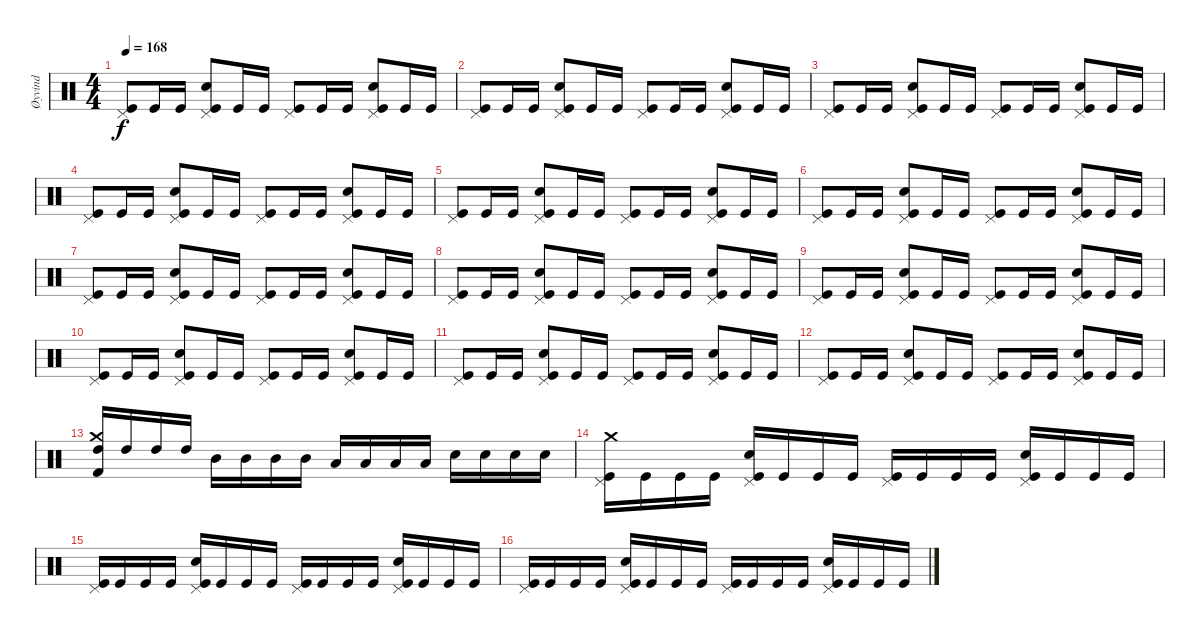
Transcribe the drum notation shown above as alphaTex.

\track ("Øyvind" "Øyvind") {instrument percussion}
\staff {score}
\articulation defaults
\ts (4 4)
\tempo 168
\clef neutral
\ks c
("Pedal Hi-Hat (hit)" "Kick (hit)").8{dy f} "Kick (hit)".16 "Kick (hit)".16 ("Snare (hit) 2" "Pedal Hi-Hat (hit)" "Kick (hit)").8 "Kick (hit)".16 "Kick (hit)".16 ("Pedal Hi-Hat (hit)" "Kick (hit)").8 "Kick (hit)".16 "Kick (hit)".16 ("Snare (hit) 2" "Pedal Hi-Hat (hit)" "Kick (hit)").8 "Kick (hit)".16 "Kick (hit)".16 |
("Pedal Hi-Hat (hit)" "Kick (hit)").8 "Kick (hit)".16 "Kick (hit)".16 ("Snare (hit) 2" "Pedal Hi-Hat (hit)" "Kick (hit)").8 "Kick (hit)".16 "Kick (hit)".16 ("Pedal Hi-Hat (hit)" "Kick (hit)").8 "Kick (hit)".16 "Kick (hit)".16 ("Snare (hit) 2" "Pedal Hi-Hat (hit)" "Kick (hit)").8 "Kick (hit)".16 "Kick (hit)".16 |
("Pedal Hi-Hat (hit)" "Kick (hit)").8 "Kick (hit)".16 "Kick (hit)".16 ("Snare (hit) 2" "Pedal Hi-Hat (hit)" "Kick (hit)").8 "Kick (hit)".16 "Kick (hit)".16 ("Pedal Hi-Hat (hit)" "Kick (hit)").8 "Kick (hit)".16 "Kick (hit)".16 ("Snare (hit) 2" "Pedal Hi-Hat (hit)" "Kick (hit)").8 "Kick (hit)".16 "Kick (hit)".16 |
("Pedal Hi-Hat (hit)" "Kick (hit)").8 "Kick (hit)".16 "Kick (hit)".16 ("Snare (hit) 2" "Pedal Hi-Hat (hit)" "Kick (hit)").8 "Kick (hit)".16 "Kick (hit)".16 ("Pedal Hi-Hat (hit)" "Kick (hit)").8 "Kick (hit)".16 "Kick (hit)".16 ("Snare (hit) 2" "Pedal Hi-Hat (hit)" "Kick (hit)").8 "Kick (hit)".16 "Kick (hit)".16 |
("Pedal Hi-Hat (hit)" "Kick (hit)").8 "Kick (hit)".16 "Kick (hit)".16 ("Snare (hit) 2" "Pedal Hi-Hat (hit)" "Kick (hit)").8 "Kick (hit)".16 "Kick (hit)".16 ("Pedal Hi-Hat (hit)" "Kick (hit)").8 "Kick (hit)".16 "Kick (hit)".16 ("Snare (hit) 2" "Pedal Hi-Hat (hit)" "Kick (hit)").8 "Kick (hit)".16 "Kick (hit)".16 |
("Pedal Hi-Hat (hit)" "Kick (hit)").8 "Kick (hit)".16 "Kick (hit)".16 ("Snare (hit) 2" "Pedal Hi-Hat (hit)" "Kick (hit)").8 "Kick (hit)".16 "Kick (hit)".16 ("Pedal Hi-Hat (hit)" "Kick (hit)").8 "Kick (hit)".16 "Kick (hit)".16 ("Snare (hit) 2" "Pedal Hi-Hat (hit)" "Kick (hit)").8 "Kick (hit)".16 "Kick (hit)".16 |
("Pedal Hi-Hat (hit)" "Kick (hit)").8 "Kick (hit)".16 "Kick (hit)".16 ("Snare (hit) 2" "Pedal Hi-Hat (hit)" "Kick (hit)").8 "Kick (hit)".16 "Kick (hit)".16 ("Pedal Hi-Hat (hit)" "Kick (hit)").8 "Kick (hit)".16 "Kick (hit)".16 ("Snare (hit) 2" "Pedal Hi-Hat (hit)" "Kick (hit)").8 "Kick (hit)".16 "Kick (hit)".16 |
("Pedal Hi-Hat (hit)" "Kick (hit)").8 "Kick (hit)".16 "Kick (hit)".16 ("Snare (hit) 2" "Pedal Hi-Hat (hit)" "Kick (hit)").8 "Kick (hit)".16 "Kick (hit)".16 ("Pedal Hi-Hat (hit)" "Kick (hit)").8 "Kick (hit)".16 "Kick (hit)".16 ("Snare (hit) 2" "Pedal Hi-Hat (hit)" "Kick (hit)").8 "Kick (hit)".16 "Kick (hit)".16 |
("Pedal Hi-Hat (hit)" "Kick (hit)").8 "Kick (hit)".16 "Kick (hit)".16 ("Snare (hit) 2" "Pedal Hi-Hat (hit)" "Kick (hit)").8 "Kick (hit)".16 "Kick (hit)".16 ("Pedal Hi-Hat (hit)" "Kick (hit)").8 "Kick (hit)".16 "Kick (hit)".16 ("Snare (hit) 2" "Pedal Hi-Hat (hit)" "Kick (hit)").8 "Kick (hit)".16 "Kick (hit)".16 |
("Pedal Hi-Hat (hit)" "Kick (hit)").8 "Kick (hit)".16 "Kick (hit)".16 ("Snare (hit) 2" "Pedal Hi-Hat (hit)" "Kick (hit)").8 "Kick (hit)".16 "Kick (hit)".16 ("Pedal Hi-Hat (hit)" "Kick (hit)").8 "Kick (hit)".16 "Kick (hit)".16 ("Snare (hit) 2" "Pedal Hi-Hat (hit)" "Kick (hit)").8 "Kick (hit)".16 "Kick (hit)".16 |
("Pedal Hi-Hat (hit)" "Kick (hit)").8 "Kick (hit)".16 "Kick (hit)".16 ("Snare (hit) 2" "Pedal Hi-Hat (hit)" "Kick (hit)").8 "Kick (hit)".16 "Kick (hit)".16 ("Pedal Hi-Hat (hit)" "Kick (hit)").8 "Kick (hit)".16 "Kick (hit)".16 ("Snare (hit) 2" "Pedal Hi-Hat (hit)" "Kick (hit)").8 "Kick (hit)".16 "Kick (hit)".16 |
("Pedal Hi-Hat (hit)" "Kick (hit)").8 "Kick (hit)".16 "Kick (hit)".16 ("Snare (hit) 2" "Pedal Hi-Hat (hit)" "Kick (hit)").8 "Kick (hit)".16 "Kick (hit)".16 ("Pedal Hi-Hat (hit)" "Kick (hit)").8 "Kick (hit)".16 "Kick (hit)".16 ("Snare (hit) 2" "Pedal Hi-Hat (hit)" "Kick (hit)").8 "Kick (hit)".16 "Kick (hit)".16 |
("High Tom (hit)" "Crash medium (hit)" "Kick (hit) 2").16 "High Tom (hit)".16 "High Tom (hit)".16 "High Tom (hit)".16 "Mid Tom (hit)".16 "Mid Tom (hit)".16 "Mid Tom (hit)".16 "Mid Tom (hit)".16 "Low Tom (hit)".16 "Low Tom (hit)".16 "Low Tom (hit)".16 "Low Tom (hit)".16 "Snare (hit) 2".16 "Snare (hit) 2".16 "Snare (hit) 2".16 "Snare (hit) 2".16 |
("Crash medium (hit)" "Pedal Hi-Hat (hit)" "Kick (hit)").16 "Kick (hit)".16 "Kick (hit)".16 "Kick (hit)".16 ("Snare (hit) 2" "Pedal Hi-Hat (hit)" "Kick (hit)").16 "Kick (hit)".16 "Kick (hit)".16 "Kick (hit)".16 ("Pedal Hi-Hat (hit)" "Kick (hit)").16 "Kick (hit)".16 "Kick (hit)".16 "Kick (hit)".16 ("Snare (hit) 2" "Pedal Hi-Hat (hit)" "Kick (hit)").16 "Kick (hit)".16 "Kick (hit)".16 "Kick (hit)".16 |
("Pedal Hi-Hat (hit)" "Kick (hit)").16 "Kick (hit)".16 "Kick (hit)".16 "Kick (hit)".16 ("Snare (hit) 2" "Pedal Hi-Hat (hit)" "Kick (hit)").16 "Kick (hit)".16 "Kick (hit)".16 "Kick (hit)".16 ("Pedal Hi-Hat (hit)" "Kick (hit)").16 "Kick (hit)".16 "Kick (hit)".16 "Kick (hit)".16 ("Snare (hit) 2" "Pedal Hi-Hat (hit)" "Kick (hit)").16 "Kick (hit)".16 "Kick (hit)".16 "Kick (hit)".16 |
("Pedal Hi-Hat (hit)" "Kick (hit)").16 "Kick (hit)".16 "Kick (hit)".16 "Kick (hit)".16 ("Snare (hit) 2" "Pedal Hi-Hat (hit)" "Kick (hit)").16 "Kick (hit)".16 "Kick (hit)".16 "Kick (hit)".16 ("Pedal Hi-Hat (hit)" "Kick (hit)").16 "Kick (hit)".16 "Kick (hit)".16 "Kick (hit)".16 ("Snare (hit) 2" "Pedal Hi-Hat (hit)" "Kick (hit)").16 "Kick (hit)".16 "Kick (hit)".16 "Kick (hit)".16
